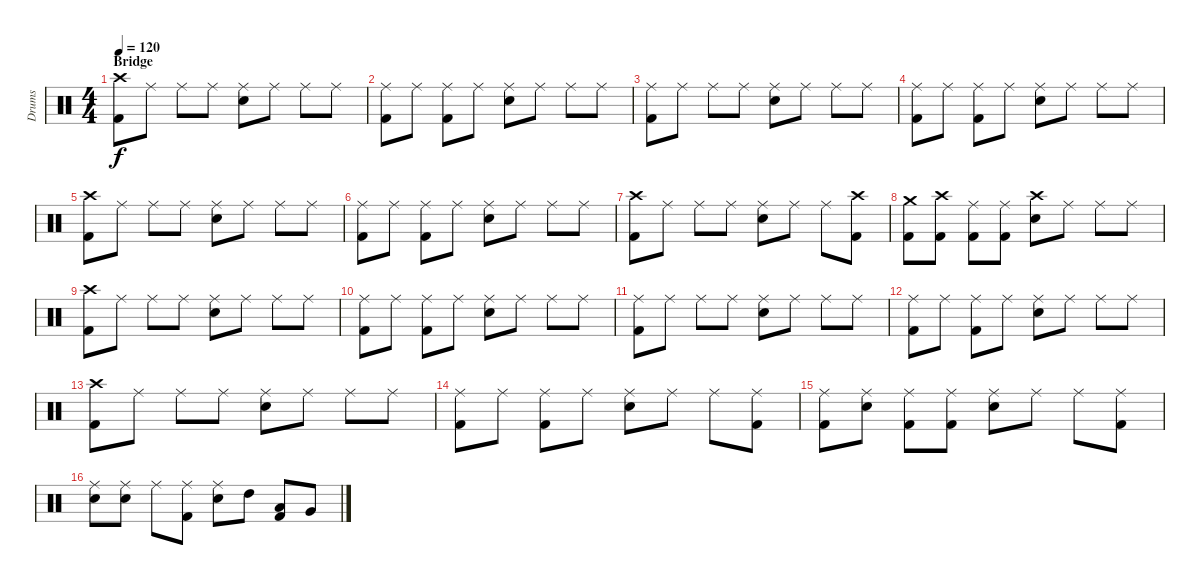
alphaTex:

\track ("Drums" "Drums") {instrument percussion}
\staff {score}
\articulation defaults
\ts (4 4)
\section ("" "Bridge")
\tempo 120
\clef neutral
\ks c
("Crash high (hit)" "Kick (hit) 2").8{dy f} "Ride (middle)".8 "Ride (middle)".8 "Ride (middle)".8 ("Ride (middle)" "Snare (hit) 2").8 "Ride (middle)".8 "Ride (middle)".8 "Ride (middle)".8 |
("Ride (middle)" "Kick (hit) 2").8 "Ride (middle)".8 ("Ride (middle)" "Kick (hit) 2").8 "Ride (middle)".8 ("Ride (middle)" "Snare (hit) 2").8 "Ride (middle)".8 "Ride (middle)".8 "Ride (middle)".8 |
("Ride (middle)" "Kick (hit) 2").8 "Ride (middle)".8 "Ride (middle)".8 "Ride (middle)".8 ("Ride (middle)" "Snare (hit) 2").8 "Ride (middle)".8 "Ride (middle)".8 "Ride (middle)".8 |
("Ride (middle)" "Kick (hit) 2").8 "Ride (middle)".8 ("Ride (middle)" "Kick (hit) 2").8 "Ride (middle)".8 ("Ride (middle)" "Snare (hit) 2").8 "Ride (middle)".8 "Ride (middle)".8 "Ride (middle)".8 |
("Crash high (hit)" "Kick (hit) 2").8 "Ride (middle)".8 "Ride (middle)".8 "Ride (middle)".8 ("Ride (middle)" "Snare (hit) 2").8 "Ride (middle)".8 "Ride (middle)".8 "Ride (middle)".8 |
("Ride (middle)" "Kick (hit) 2").8 "Ride (middle)".8 ("Ride (middle)" "Kick (hit) 2").8 "Ride (middle)".8 ("Ride (middle)" "Snare (hit) 2").8 "Ride (middle)".8 "Ride (middle)".8 "Ride (middle)".8 |
("Crash high (hit)" "Kick (hit) 2").8 "Ride (middle)".8 "Ride (middle)".8 "Ride (middle)".8 ("Ride (middle)" "Snare (hit) 2").8 "Ride (middle)".8 "Ride (middle)".8 ("Crash high (hit)" "Kick (hit) 2").8 |
("Crash medium (hit)" "Kick (hit) 2").8 ("Crash high (hit)" "Kick (hit) 2").8 ("Ride (middle)" "Kick (hit) 2").8 ("Ride (middle)" "Kick (hit) 2").8 ("Crash high (hit)" "Snare (hit) 2").8 "Ride (middle)".8 "Ride (middle)".8 "Ride (middle)".8 |
("Crash high (hit)" "Kick (hit) 2").8 "Ride (middle)".8 "Ride (middle)".8 "Ride (middle)".8 ("Ride (middle)" "Snare (hit) 2").8 "Ride (middle)".8 "Ride (middle)".8 "Ride (middle)".8 |
("Ride (middle)" "Kick (hit) 2").8 "Ride (middle)".8 ("Ride (middle)" "Kick (hit) 2").8 "Ride (middle)".8 ("Ride (middle)" "Snare (hit) 2").8 "Ride (middle)".8 "Ride (middle)".8 "Ride (middle)".8 |
("Ride (middle)" "Kick (hit) 2").8 "Ride (middle)".8 "Ride (middle)".8 "Ride (middle)".8 ("Ride (middle)" "Snare (hit) 2").8 "Ride (middle)".8 "Ride (middle)".8 "Ride (middle)".8 |
("Ride (middle)" "Kick (hit) 2").8 "Ride (middle)".8 ("Ride (middle)" "Kick (hit) 2").8 "Ride (middle)".8 ("Ride (middle)" "Snare (hit) 2").8 "Ride (middle)".8 "Ride (middle)".8 "Ride (middle)".8 |
("Crash high (hit)" "Kick (hit) 2").8 "Ride (middle)".8 "Ride (middle)".8 "Ride (middle)".8 ("Ride (middle)" "Snare (hit) 2").8 "Ride (middle)".8 "Ride (middle)".8 "Ride (middle)".8 |
("Ride (middle)" "Kick (hit) 2").8 "Ride (middle)".8 ("Ride (middle)" "Kick (hit) 2").8 "Ride (middle)".8 ("Ride (middle)" "Snare (hit) 2").8 "Ride (middle)".8 "Ride (middle)".8 ("Ride (middle)" "Kick (hit) 2").8 |
("Ride (middle)" "Kick (hit) 2").8 ("Ride (middle)" "Snare (hit) 2").8 ("Ride (middle)" "Kick (hit) 2").8 ("Ride (middle)" "Kick (hit) 2").8 ("Ride (middle)" "Snare (hit) 2").8 "Ride (middle)".8 "Ride (middle)".8 ("Ride (middle)" "Kick (hit) 2").8 |
("Ride (middle)" "Snare (hit) 2").8 ("Ride (middle)" "Snare (hit) 2").8 "Ride (middle)".8 ("Ride (middle)" "Kick (hit) 2").8 ("Ride (middle)" "Snare (hit) 2").8 "High Tom (hit)".8 ("Kick (hit) 2" "Low Tom (hit)").8 "Very Low Tom (hit)".8
